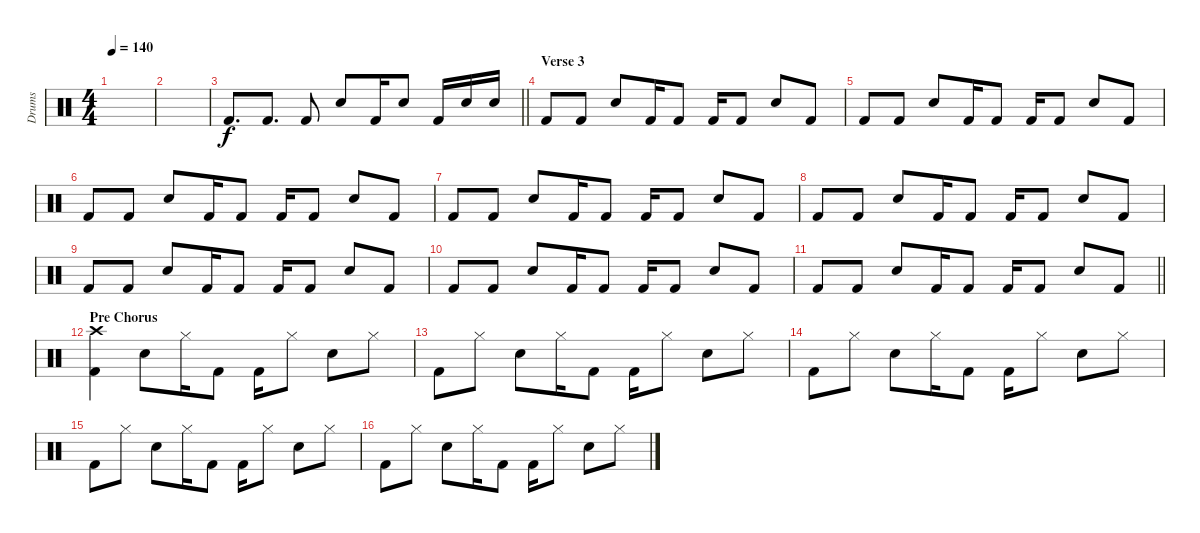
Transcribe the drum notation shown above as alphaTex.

\track ("Drums" "Drums") {instrument percussion}
\staff {score}
\articulation defaults
\ts (4 4)
\tempo 140
\clef neutral
\ks c
|
|
\barLineRight lightlight "Kick (hit) 2".8{d dy f} "Kick (hit) 2".8{d} "Kick (hit) 2".8 "Snare (hit) 2".8 "Kick (hit) 2".16 "Snare (hit) 2".8 "Kick (hit) 2".16 "Snare (hit) 2".16 "Snare (hit) 2".16
|
\section ("" "Verse 3")
"Kick (hit) 2".8 "Kick (hit) 2".8 "Snare (hit) 2".8 "Kick (hit) 2".16 "Kick (hit) 2".8 "Kick (hit) 2".16 "Kick (hit) 2".8 "Snare (hit) 2".8 "Kick (hit) 2".8 |
"Kick (hit) 2".8 "Kick (hit) 2".8 "Snare (hit) 2".8 "Kick (hit) 2".16 "Kick (hit) 2".8 "Kick (hit) 2".16 "Kick (hit) 2".8 "Snare (hit) 2".8 "Kick (hit) 2".8 |
"Kick (hit) 2".8 "Kick (hit) 2".8 "Snare (hit) 2".8 "Kick (hit) 2".16 "Kick (hit) 2".8 "Kick (hit) 2".16 "Kick (hit) 2".8 "Snare (hit) 2".8 "Kick (hit) 2".8 |
"Kick (hit) 2".8 "Kick (hit) 2".8 "Snare (hit) 2".8 "Kick (hit) 2".16 "Kick (hit) 2".8 "Kick (hit) 2".16 "Kick (hit) 2".8 "Snare (hit) 2".8 "Kick (hit) 2".8 |
"Kick (hit) 2".8 "Kick (hit) 2".8 "Snare (hit) 2".8 "Kick (hit) 2".16 "Kick (hit) 2".8 "Kick (hit) 2".16 "Kick (hit) 2".8 "Snare (hit) 2".8 "Kick (hit) 2".8 |
"Kick (hit) 2".8 "Kick (hit) 2".8 "Snare (hit) 2".8 "Kick (hit) 2".16 "Kick (hit) 2".8 "Kick (hit) 2".16 "Kick (hit) 2".8 "Snare (hit) 2".8 "Kick (hit) 2".8 |
"Kick (hit) 2".8 "Kick (hit) 2".8 "Snare (hit) 2".8 "Kick (hit) 2".16 "Kick (hit) 2".8 "Kick (hit) 2".16 "Kick (hit) 2".8 "Snare (hit) 2".8 "Kick (hit) 2".8 |
\barLineRight lightlight "Kick (hit) 2".8 "Kick (hit) 2".8 "Snare (hit) 2".8 "Kick (hit) 2".16 "Kick (hit) 2".8 "Kick (hit) 2".16 "Kick (hit) 2".8 "Snare (hit) 2".8 "Kick (hit) 2".8
|
\section ("" "Pre Chorus")
("Crash high (hit)" "Kick (hit) 2").4 "Snare (hit) 2".8 "Hi-Hat (closed)".16 "Kick (hit) 2".8 "Kick (hit) 2".16 "Hi-Hat (closed)".8 "Snare (hit) 2".8 "Hi-Hat (closed)".8 |
"Kick (hit) 2".8 "Hi-Hat (closed)".8 "Snare (hit) 2".8 "Hi-Hat (closed)".16 "Kick (hit) 2".8 "Kick (hit) 2".16 "Hi-Hat (closed)".8 "Snare (hit) 2".8 "Hi-Hat (closed)".8 |
"Kick (hit) 2".8 "Hi-Hat (closed)".8 "Snare (hit) 2".8 "Hi-Hat (closed)".16 "Kick (hit) 2".8 "Kick (hit) 2".16 "Hi-Hat (closed)".8 "Snare (hit) 2".8 "Hi-Hat (closed)".8 |
"Kick (hit) 2".8 "Hi-Hat (closed)".8 "Snare (hit) 2".8 "Hi-Hat (closed)".16 "Kick (hit) 2".8 "Kick (hit) 2".16 "Hi-Hat (closed)".8 "Snare (hit) 2".8 "Hi-Hat (closed)".8 |
"Kick (hit) 2".8 "Hi-Hat (closed)".8 "Snare (hit) 2".8 "Hi-Hat (closed)".16 "Kick (hit) 2".8 "Kick (hit) 2".16 "Hi-Hat (closed)".8 "Snare (hit) 2".8 "Hi-Hat (closed)".8
